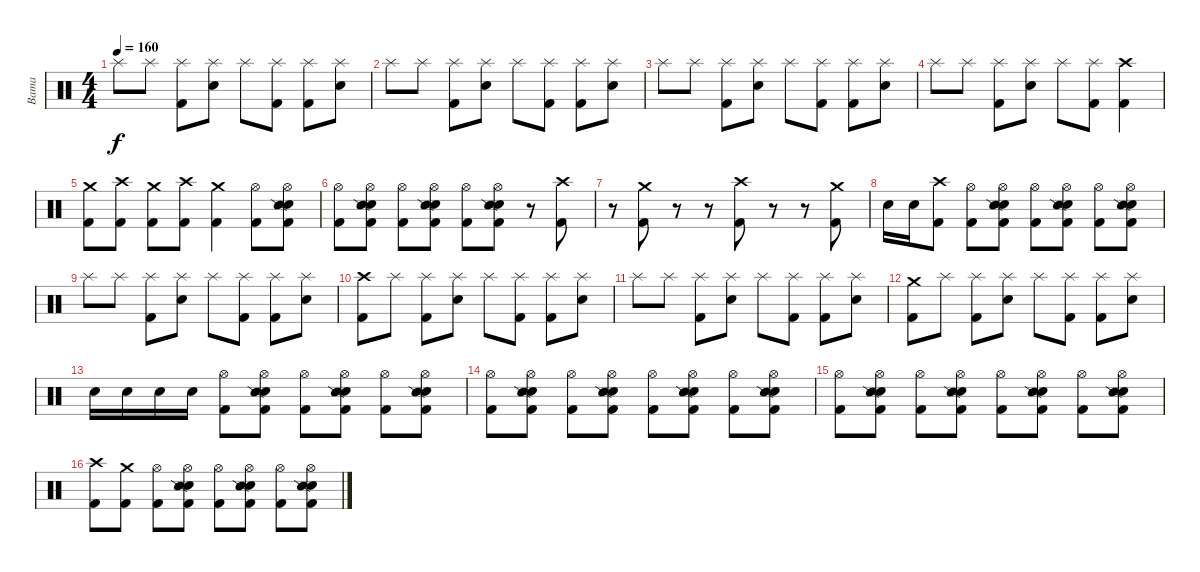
\track ("Bama" "Bama") {instrument percussion}
\staff {score}
\articulation defaults
\ts (4 4)
\tempo 160
\clef neutral
\ks c "Splash (hit)".8{dy f} "Splash (hit)".8
("Splash (hit)" "Kick (hit) 2").8 ("Splash (hit)" "Electric Snare (hit)").8 "Splash (hit)".8 ("Splash (hit)" "Kick (hit) 2").8 ("Splash (hit)" "Kick (hit) 2").8 ("Splash (hit)" "Electric Snare (hit)").8 |
"Splash (hit)".8 "Splash (hit)".8 ("Splash (hit)" "Kick (hit) 2").8 ("Splash (hit)" "Electric Snare (hit)").8 "Splash (hit)".8 ("Splash (hit)" "Kick (hit) 2").8 ("Splash (hit)" "Kick (hit) 2").8 ("Splash (hit)" "Electric Snare (hit)").8 |
"Splash (hit)".8 "Splash (hit)".8 ("Splash (hit)" "Kick (hit) 2").8 ("Splash (hit)" "Electric Snare (hit)").8 "Splash (hit)".8 ("Splash (hit)" "Kick (hit) 2").8 ("Splash (hit)" "Kick (hit) 2").8 ("Splash (hit)" "Electric Snare (hit)").8 |
"Splash (hit)".8 "Splash (hit)".8 ("Splash (hit)" "Kick (hit) 2").8 ("Splash (hit)" "Electric Snare (hit)").8 "Splash (hit)".8 ("Splash (hit)" "Kick (hit) 2").8 ("Crash high (hit)" "Kick (hit) 2").4 |
("Crash medium (hit)" "Kick (hit) 2").8 ("Crash high (hit)" "Kick (hit) 2").8 ("Crash medium (hit)" "Kick (hit) 2").8 ("Crash high (hit)" "Kick (hit) 2").8 ("Crash medium (hit)" "Kick (hit) 2").4 ("Hi-Hat (open)" "Kick (hit) 2").8 ("Hi-Hat (open)" "Electric Snare (hit)" "Snare (side stick) 2" "Kick (hit) 2").8 |
("Hi-Hat (open)" "Kick (hit) 2").8 ("Hi-Hat (open)" "Electric Snare (hit)" "Snare (side stick) 2" "Kick (hit) 2").8 ("Hi-Hat (open)" "Kick (hit) 2").8 ("Hi-Hat (open)" "Electric Snare (hit)" "Snare (side stick) 2" "Kick (hit) 2").8 ("Hi-Hat (open)" "Kick (hit) 2").8 ("Hi-Hat (open)" "Electric Snare (hit)" "Snare (side stick) 2" "Kick (hit) 2").8 r.8 ("Crash high (hit)" "Kick (hit) 2").8 |
r.8 ("Crash medium (hit)" "Kick (hit) 2").8 r.8 r.8 ("Crash high (hit)" "Kick (hit) 2").8 r.8 r.8 ("Crash medium (hit)" "Kick (hit) 2").8 |
"Electric Snare (hit)".16 "Electric Snare (hit)".16 ("Crash high (hit)" "Kick (hit) 2").8 ("Hi-Hat (open)" "Kick (hit) 2").8 ("Hi-Hat (open)" "Electric Snare (hit)" "Snare (side stick) 2" "Kick (hit) 2").8 ("Hi-Hat (open)" "Kick (hit) 2").8 ("Hi-Hat (open)" "Electric Snare (hit)" "Snare (side stick) 2" "Kick (hit) 2").8 ("Hi-Hat (open)" "Kick (hit) 2").8 ("Hi-Hat (open)" "Electric Snare (hit)" "Snare (side stick) 2" "Kick (hit) 2").8 |
"Splash (hit)".8 "Splash (hit)".8 ("Splash (hit)" "Kick (hit) 2").8 ("Splash (hit)" "Electric Snare (hit)").8 "Splash (hit)".8 ("Splash (hit)" "Kick (hit) 2").8 ("Splash (hit)" "Kick (hit) 2").8 ("Splash (hit)" "Electric Snare (hit)").8 |
("Crash high (hit)" "Kick (hit) 2").8 "Splash (hit)".8 ("Splash (hit)" "Kick (hit) 2").8 ("Splash (hit)" "Electric Snare (hit)").8 "Splash (hit)".8 ("Splash (hit)" "Kick (hit) 2").8 ("Splash (hit)" "Kick (hit) 2").8 ("Splash (hit)" "Electric Snare (hit)").8 |
"Splash (hit)".8 "Splash (hit)".8 ("Splash (hit)" "Kick (hit) 2").8 ("Splash (hit)" "Electric Snare (hit)").8 "Splash (hit)".8 ("Splash (hit)" "Kick (hit) 2").8 ("Splash (hit)" "Kick (hit) 2").8 ("Splash (hit)" "Electric Snare (hit)").8 |
("Crash medium (hit)" "Kick (hit) 2").8 "Splash (hit)".8 ("Splash (hit)" "Kick (hit) 2").8 ("Splash (hit)" "Electric Snare (hit)").8 "Splash (hit)".8 ("Splash (hit)" "Kick (hit) 2").8 ("Splash (hit)" "Kick (hit) 2").8 ("Splash (hit)" "Electric Snare (hit)").8 |
"Electric Snare (hit)".16 "Electric Snare (hit)".16 "Electric Snare (hit)".16 "Electric Snare (hit)".16 ("Hi-Hat (open)" "Kick (hit) 2").8 ("Hi-Hat (open)" "Electric Snare (hit)" "Snare (side stick) 2" "Kick (hit) 2").8 ("Hi-Hat (open)" "Kick (hit) 2").8 ("Hi-Hat (open)" "Electric Snare (hit)" "Snare (side stick) 2" "Kick (hit) 2").8 ("Hi-Hat (open)" "Kick (hit) 2").8 ("Hi-Hat (open)" "Electric Snare (hit)" "Snare (side stick) 2" "Kick (hit) 2").8 |
("Hi-Hat (open)" "Kick (hit) 2").8 ("Hi-Hat (open)" "Electric Snare (hit)" "Snare (side stick) 2" "Kick (hit) 2").8 ("Hi-Hat (open)" "Kick (hit) 2").8 ("Hi-Hat (open)" "Electric Snare (hit)" "Snare (side stick) 2" "Kick (hit) 2").8 ("Hi-Hat (open)" "Kick (hit) 2").8 ("Hi-Hat (open)" "Electric Snare (hit)" "Snare (side stick) 2" "Kick (hit) 2").8 ("Hi-Hat (open)" "Kick (hit) 2").8 ("Hi-Hat (open)" "Electric Snare (hit)" "Snare (side stick) 2" "Kick (hit) 2").8 |
("Hi-Hat (open)" "Kick (hit) 2").8 ("Hi-Hat (open)" "Electric Snare (hit)" "Snare (side stick) 2" "Kick (hit) 2").8 ("Hi-Hat (open)" "Kick (hit) 2").8 ("Hi-Hat (open)" "Electric Snare (hit)" "Snare (side stick) 2" "Kick (hit) 2").8 ("Hi-Hat (open)" "Kick (hit) 2").8 ("Hi-Hat (open)" "Electric Snare (hit)" "Snare (side stick) 2" "Kick (hit) 2").8 ("Hi-Hat (open)" "Kick (hit) 2").8 ("Hi-Hat (open)" "Electric Snare (hit)" "Snare (side stick) 2" "Kick (hit) 2").8 |
("Crash high (hit)" "Kick (hit) 2").8 ("Crash medium (hit)" "Kick (hit) 2").8 ("Hi-Hat (open)" "Kick (hit) 2").8 ("Hi-Hat (open)" "Electric Snare (hit)" "Snare (side stick) 2" "Kick (hit) 2").8 ("Hi-Hat (open)" "Kick (hit) 2").8 ("Hi-Hat (open)" "Electric Snare (hit)" "Snare (side stick) 2" "Kick (hit) 2").8 ("Hi-Hat (open)" "Kick (hit) 2").8 ("Hi-Hat (open)" "Electric Snare (hit)" "Snare (side stick) 2" "Kick (hit) 2").8
